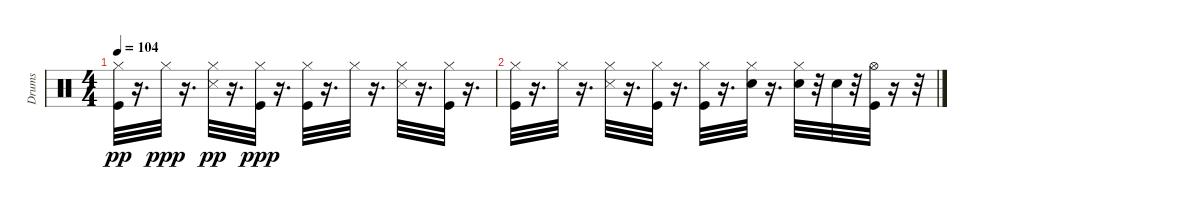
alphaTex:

\track ("Drums" "Drums") {instrument percussion}
\staff {score}
\articulation defaults
\ts (4 4)
\tempo 104
\clef neutral
\ks c
("Kick (hit)" "Hi-Hat (closed)").32{dy pp volume 4} r.16{d} "Hi-Hat (closed)".32{dy ppp volume 3} r.16{d} ("Hi-Hat (closed)" "Snare (side stick) 3").32{dy pp volume 3} r.16{d} ("Kick (hit)" "Hi-Hat (closed)").32{dy ppp volume 3} r.16{d} ("Kick (hit)" "Hi-Hat (closed)").32{volume 3} r.16{d} "Hi-Hat (closed)".32{volume 2} r.16{d} ("Hi-Hat (closed)" "Snare (side stick) 3").32{volume 2} r.16{d} ("Kick (hit)" "Hi-Hat (closed)").32{volume 2} r.16{d} |
("Kick (hit)" "Hi-Hat (closed)").32{volume 2} r.16{d} "Hi-Hat (closed)".32{volume 2} r.16{d} ("Hi-Hat (closed)" "Snare (side stick) 3").32{volume 1} r.16{d} ("Kick (hit)" "Hi-Hat (closed)").32{volume 1} r.16{d} ("Kick (hit)" "Hi-Hat (closed)").32{volume 1} r.16{d} ("Snare (hit) 2" "Hi-Hat (closed)").32{volume 1} r.16{d} ("Snare (hit) 2" "Hi-Hat (closed)").32{volume 1} r.32 "Snare (hit) 2".32{volume 0} r.32 ("Kick (hit)" "Hi-Hat (open)").32{volume 0} r.16 r.32
